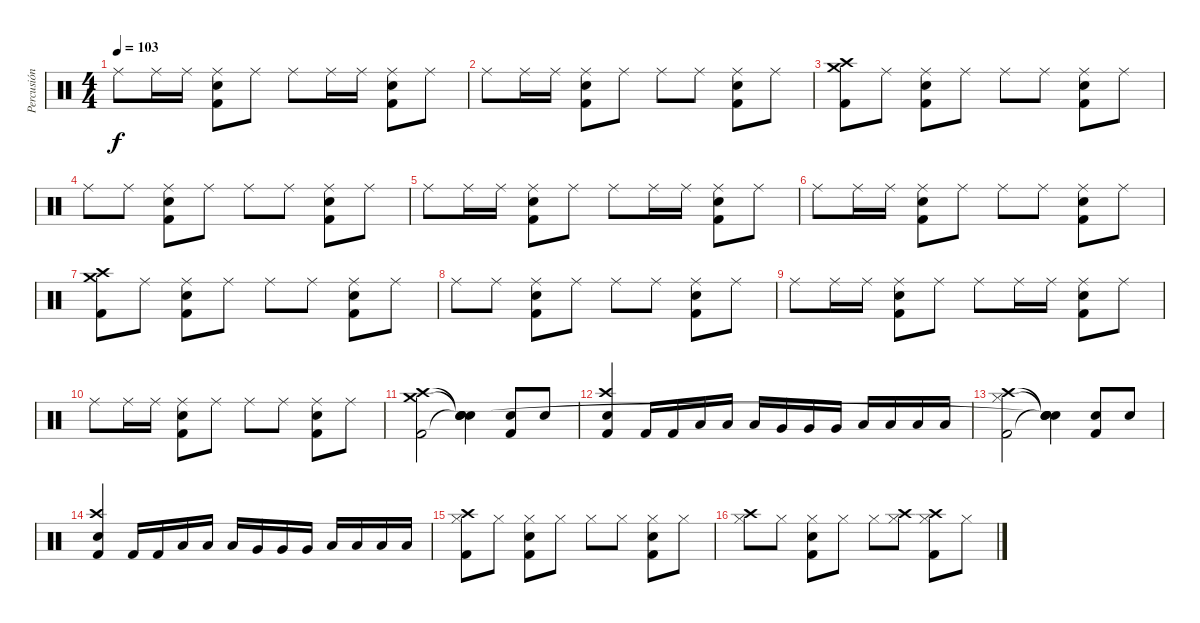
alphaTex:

\track ("Percusión" "Percusión") {instrument percussion}
\staff {score}
\articulation defaults
\ts (4 4)
\tempo 103
\clef neutral
\ks c "Ride (middle)".8{dy f} "Ride (middle)".16 "Ride (middle)".16
("Ride (middle)" "Snare (hit) 2" "Kick (hit) 2").8 "Ride (middle)".8 "Ride (middle)".8 "Ride (middle)".16 "Ride (middle)".16 ("Ride (middle)" "Snare (hit) 2" "Kick (hit) 2").8 "Ride (middle)".8 |
"Ride (middle)".8 "Ride (middle)".16 "Ride (middle)".16 ("Ride (middle)" "Snare (hit) 2" "Kick (hit) 2").8 "Ride (middle)".8 "Ride (middle)".8 "Ride (middle)".8 ("Ride (middle)" "Snare (hit) 2" "Kick (hit) 2").8 "Ride (middle)".8 |
("Crash medium (hit)" "Crash high (hit)" "Kick (hit) 2").8 "Ride (middle)".8 ("Ride (middle)" "Snare (hit) 2" "Kick (hit) 2").8 "Ride (middle)".8 "Ride (middle)".8 "Ride (middle)".8 ("Ride (middle)" "Snare (hit) 2" "Kick (hit) 2").8 "Ride (middle)".8 |
"Ride (middle)".8 "Ride (middle)".8 ("Ride (middle)" "Snare (hit) 2" "Kick (hit) 2").8 "Ride (middle)".8 "Ride (middle)".8 "Ride (middle)".8 ("Ride (middle)" "Snare (hit) 2" "Kick (hit) 2").8 "Ride (middle)".8 |
"Ride (middle)".8 "Ride (middle)".16 "Ride (middle)".16 ("Ride (middle)" "Snare (hit) 2" "Kick (hit) 2").8 "Ride (middle)".8 "Ride (middle)".8 "Ride (middle)".16 "Ride (middle)".16 ("Ride (middle)" "Snare (hit) 2" "Kick (hit) 2").8 "Ride (middle)".8 |
"Ride (middle)".8 "Ride (middle)".16 "Ride (middle)".16 ("Ride (middle)" "Snare (hit) 2" "Kick (hit) 2").8 "Ride (middle)".8 "Ride (middle)".8 "Ride (middle)".8 ("Ride (middle)" "Snare (hit) 2" "Kick (hit) 2").8 "Ride (middle)".8 |
("Crash medium (hit)" "Crash high (hit)" "Kick (hit) 2").8 "Ride (middle)".8 ("Ride (middle)" "Snare (hit) 2" "Kick (hit) 2").8 "Ride (middle)".8 "Ride (middle)".8 "Ride (middle)".8 ("Ride (middle)" "Snare (hit) 2" "Kick (hit) 2").8 "Ride (middle)".8 |
"Ride (middle)".8 "Ride (middle)".8 ("Ride (middle)" "Snare (hit) 2" "Kick (hit) 2").8 "Ride (middle)".8 "Ride (middle)".8 "Ride (middle)".8 ("Ride (middle)" "Snare (hit) 2" "Kick (hit) 2").8 "Ride (middle)".8 |
"Ride (middle)".8 "Ride (middle)".16 "Ride (middle)".16 ("Ride (middle)" "Snare (hit) 2" "Kick (hit) 2").8 "Ride (middle)".8 "Ride (middle)".8 "Ride (middle)".16 "Ride (middle)".16 ("Ride (middle)" "Snare (hit) 2" "Kick (hit) 2").8 "Ride (middle)".8 |
"Ride (middle)".8 "Ride (middle)".16 "Ride (middle)".16 ("Ride (middle)" "Snare (hit) 2" "Kick (hit) 2").8 "Ride (middle)".8 "Ride (middle)".8 "Ride (middle)".8 ("Ride (middle)" "Snare (hit) 2" "Kick (hit) 2").8 "Ride (middle)".8 |
("Crash medium (hit)" "Crash high (hit)" "Kick (hit) 2").2 ("Snare (hit) 2"{t} "Snare (hit)"{t} "Snare (hit)"{t} "Snare (hit)").4 ("Kick (hit) 2" "Electric Snare (hit)").8 "Snare (hit) 2".8 |
("Electric Snare (hit)" "Crash high (hit)" "Kick (hit) 2").4 "Kick (hit) 2".16 "Kick (hit) 2".16 "Low Tom (hit)".16 "Low Tom (hit)".16 "Low Tom (hit)".16 "Very Low Tom (hit)".16 "Very Low Tom (hit)".16 "Very Low Tom (hit)".16 "Low Floor Tom (hit)".16 "Low Floor Tom (hit)".16 "Low Floor Tom (hit)".16 "Low Floor Tom (hit)".16 |
("Hi-Hat (closed)" "Crash high (hit)" "Kick (hit) 2").2 ("Snare (hit) 2"{t} "Snare (hit)"{t} "Snare (hit)"{t} "Snare (hit)"{t}).4 ("Kick (hit) 2" "Electric Snare (hit)").8 "Snare (hit) 2".8 |
("Electric Snare (hit)" "Crash high (hit)" "Kick (hit) 2").4 "Kick (hit) 2".16 "Kick (hit) 2".16 "Low Tom (hit)".16 "Low Tom (hit)".16 "Low Tom (hit)".16 "Very Low Tom (hit)".16 "Very Low Tom (hit)".16 "Very Low Tom (hit)".16 "Low Floor Tom (hit)".16 "Low Floor Tom (hit)".16 "Low Floor Tom (hit)".16 "Low Floor Tom (hit)".16 |
("Hi-Hat (closed)" "Crash high (hit)" "Kick (hit) 2").8 "Hi-Hat (closed)".8 ("Hi-Hat (closed)" "Snare (hit) 2" "Kick (hit) 2").8 "Hi-Hat (closed)".8 "Hi-Hat (closed)".8 "Hi-Hat (closed)".8 ("Hi-Hat (closed)" "Snare (hit) 2" "Kick (hit) 2").8 "Hi-Hat (closed)".8 |
("Hi-Hat (closed)" "Crash high (hit)").8 "Hi-Hat (closed)".8 ("Hi-Hat (closed)" "Snare (hit) 2" "Kick (hit) 2").8 "Hi-Hat (closed)".8 "Hi-Hat (closed)".8 ("Hi-Hat (closed)" "Crash high (hit)").8 ("Hi-Hat (closed)" "Crash high (hit)" "Kick (hit) 2").8 "Hi-Hat (closed)".8
